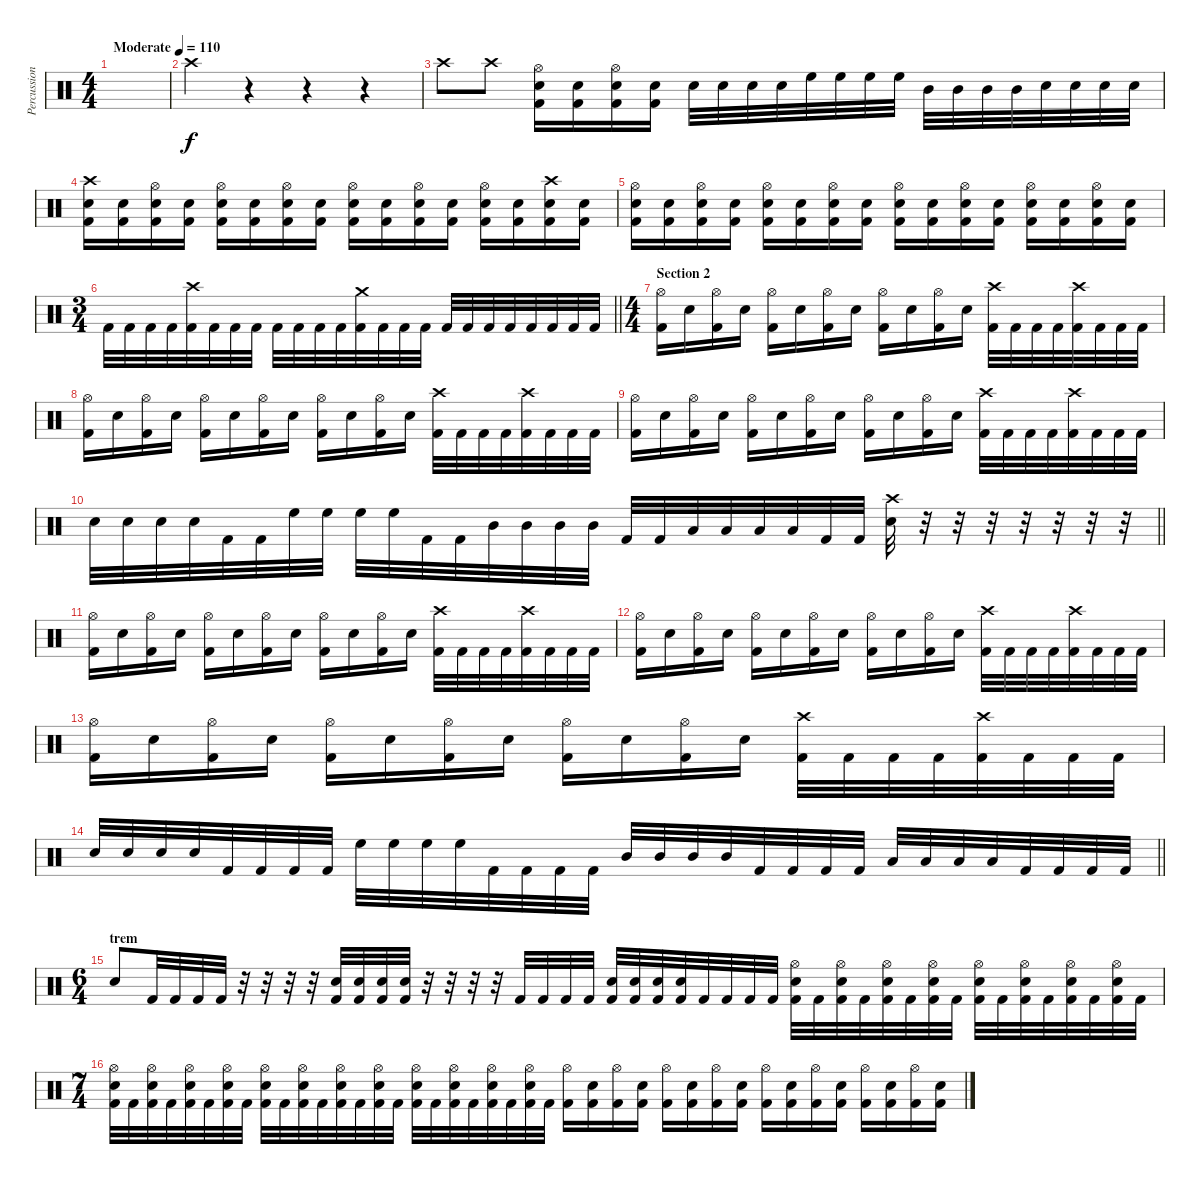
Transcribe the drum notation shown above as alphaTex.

\track ("Percussion" "Percussion") {instrument percussion}
\staff {score}
\articulation defaults
\ts (4 4)
\tempo (110 "Moderate")
\clef neutral
\ks c
|
"Crash high (hit)".4 r.4 r.4 r.4 |
"Crash high (hit)".8 "Crash high (hit)".8 ("Hi-Hat (open)" "Electric Snare (hit)" "Kick (hit) 2").16 ("Electric Snare (hit)" "Kick (hit) 2").16 ("Hi-Hat (open)" "Electric Snare (hit)" "Kick (hit) 2").16 ("Electric Snare (hit)" "Kick (hit) 2").16 "Electric Snare (hit)".32 "Electric Snare (hit)".32 "Electric Snare (hit)".32 "Electric Snare (hit)".32 "High Floor Tom (hit)".32 "High Floor Tom (hit)".32 "High Floor Tom (hit)".32 "High Floor Tom (hit)".32 "Mid Tom (hit)".32 "Mid Tom (hit)".32 "Mid Tom (hit)".32 "Mid Tom (hit)".32 "Electric Snare (hit)".32 "Electric Snare (hit)".32 "Electric Snare (hit)".32 "Electric Snare (hit)".32 |
("Crash high (hit)" "Electric Snare (hit)" "Kick (hit) 2").16 ("Electric Snare (hit)" "Kick (hit) 2").16 ("Hi-Hat (open)" "Electric Snare (hit)" "Kick (hit) 2").16 ("Electric Snare (hit)" "Kick (hit) 2").16 ("Hi-Hat (open)" "Electric Snare (hit)" "Kick (hit) 2").16 ("Electric Snare (hit)" "Kick (hit) 2").16 ("Hi-Hat (open)" "Electric Snare (hit)" "Kick (hit) 2").16 ("Electric Snare (hit)" "Kick (hit) 2").16 ("Hi-Hat (open)" "Electric Snare (hit)" "Kick (hit) 2").16 ("Electric Snare (hit)" "Kick (hit) 2").16 ("Hi-Hat (open)" "Electric Snare (hit)" "Kick (hit) 2").16 ("Electric Snare (hit)" "Kick (hit) 2").16 ("Hi-Hat (open)" "Electric Snare (hit)" "Kick (hit) 2").16 ("Electric Snare (hit)" "Kick (hit) 2").16 ("Crash high (hit)" "Electric Snare (hit)" "Kick (hit) 2").16 ("Electric Snare (hit)" "Kick (hit) 2").16 |
("Hi-Hat (open)" "Electric Snare (hit)" "Kick (hit) 2").16 ("Electric Snare (hit)" "Kick (hit) 2").16 ("Hi-Hat (open)" "Electric Snare (hit)" "Kick (hit) 2").16 ("Electric Snare (hit)" "Kick (hit) 2").16 ("Hi-Hat (open)" "Electric Snare (hit)" "Kick (hit) 2").16 ("Electric Snare (hit)" "Kick (hit) 2").16 ("Hi-Hat (open)" "Electric Snare (hit)" "Kick (hit) 2").16 ("Electric Snare (hit)" "Kick (hit) 2").16 ("Hi-Hat (open)" "Electric Snare (hit)" "Kick (hit) 2").16 ("Electric Snare (hit)" "Kick (hit) 2").16 ("Hi-Hat (open)" "Electric Snare (hit)" "Kick (hit) 2").16 ("Electric Snare (hit)" "Kick (hit) 2").16 ("Hi-Hat (open)" "Electric Snare (hit)" "Kick (hit) 2").16 ("Electric Snare (hit)" "Kick (hit) 2").16 ("Hi-Hat (open)" "Electric Snare (hit)" "Kick (hit) 2").16 ("Electric Snare (hit)" "Kick (hit) 2").16 |
\ts (3 4)
\barLineRight lightlight "Kick (hit) 2".32 "Kick (hit) 2".32 "Kick (hit) 2".32 "Kick (hit) 2".32
("Crash high (hit)" "Kick (hit) 2").32 "Kick (hit) 2".32 "Kick (hit) 2".32 "Kick (hit) 2".32 "Kick (hit) 2".32 "Kick (hit) 2".32 "Kick (hit) 2".32 "Kick (hit) 2".32 ("Crash medium (hit)" "Kick (hit) 2").32 "Kick (hit) 2".32 "Kick (hit) 2".32 "Kick (hit) 2".32 "Kick (hit) 2".32 "Kick (hit) 2".32 "Kick (hit) 2".32 "Kick (hit) 2".32 "Kick (hit) 2".32 "Kick (hit) 2".32 "Kick (hit) 2".32 "Kick (hit) 2".32 |
\ts (4 4)
\section ("" "Section 2")
("Hi-Hat (open)" "Kick (hit) 2").16 "Electric Snare (hit)".16 ("Hi-Hat (open)" "Kick (hit) 2").16 "Electric Snare (hit)".16 ("Hi-Hat (open)" "Kick (hit) 2").16 "Electric Snare (hit)".16 ("Hi-Hat (open)" "Kick (hit) 2").16 "Electric Snare (hit)".16 ("Hi-Hat (open)" "Kick (hit) 2").16 "Electric Snare (hit)".16 ("Hi-Hat (open)" "Kick (hit) 2").16 "Electric Snare (hit)".16 ("Crash high (hit)" "Kick (hit) 2").32 "Kick (hit) 2".32 "Kick (hit) 2".32 "Kick (hit) 2".32 ("Crash high (hit)" "Kick (hit) 2").32 "Kick (hit) 2".32 "Kick (hit) 2".32 "Kick (hit) 2".32 |
("Hi-Hat (open)" "Kick (hit) 2").16 "Electric Snare (hit)".16 ("Hi-Hat (open)" "Kick (hit) 2").16 "Electric Snare (hit)".16 ("Hi-Hat (open)" "Kick (hit) 2").16 "Electric Snare (hit)".16 ("Hi-Hat (open)" "Kick (hit) 2").16 "Electric Snare (hit)".16 ("Hi-Hat (open)" "Kick (hit) 2").16 "Electric Snare (hit)".16 ("Hi-Hat (open)" "Kick (hit) 2").16 "Electric Snare (hit)".16 ("Crash high (hit)" "Kick (hit) 2").32 "Kick (hit) 2".32 "Kick (hit) 2".32 "Kick (hit) 2".32 ("Crash high (hit)" "Kick (hit) 2").32 "Kick (hit) 2".32 "Kick (hit) 2".32 "Kick (hit) 2".32 |
("Hi-Hat (open)" "Kick (hit) 2").16 "Electric Snare (hit)".16 ("Hi-Hat (open)" "Kick (hit) 2").16 "Electric Snare (hit)".16 ("Hi-Hat (open)" "Kick (hit) 2").16 "Electric Snare (hit)".16 ("Hi-Hat (open)" "Kick (hit) 2").16 "Electric Snare (hit)".16 ("Hi-Hat (open)" "Kick (hit) 2").16 "Electric Snare (hit)".16 ("Hi-Hat (open)" "Kick (hit) 2").16 "Electric Snare (hit)".16 ("Crash high (hit)" "Kick (hit) 2").32 "Kick (hit) 2".32 "Kick (hit) 2".32 "Kick (hit) 2".32 ("Crash high (hit)" "Kick (hit) 2").32 "Kick (hit) 2".32 "Kick (hit) 2".32 "Kick (hit) 2".32 |
\barLineRight lightlight "Electric Snare (hit)".32 "Electric Snare (hit)".32 "Electric Snare (hit)".32 "Electric Snare (hit)".32 "Kick (hit) 2".32 "Kick (hit) 2".32 "High Floor Tom (hit)".32 "High Floor Tom (hit)".32 "High Floor Tom (hit)".32 "High Floor Tom (hit)".32 "Kick (hit) 2".32 "Kick (hit) 2".32 "Mid Tom (hit)".32 "Mid Tom (hit)".32 "Mid Tom (hit)".32 "Mid Tom (hit)".32 "Kick (hit) 2".32 "Kick (hit) 2".32 "Low Tom (hit)".32 "Low Tom (hit)".32 "Low Tom (hit)".32 "Low Tom (hit)".32 "Kick (hit) 2".32 "Kick (hit) 2".32
("Electric Snare (hit)" "Crash high (hit)").32 r.32 r.32 r.32 r.32 r.32 r.32 r.32 |
("Hi-Hat (open)" "Kick (hit) 2").16 "Electric Snare (hit)".16 ("Hi-Hat (open)" "Kick (hit) 2").16 "Electric Snare (hit)".16 ("Hi-Hat (open)" "Kick (hit) 2").16 "Electric Snare (hit)".16 ("Hi-Hat (open)" "Kick (hit) 2").16 "Electric Snare (hit)".16 ("Hi-Hat (open)" "Kick (hit) 2").16 "Electric Snare (hit)".16 ("Hi-Hat (open)" "Kick (hit) 2").16 "Electric Snare (hit)".16 ("Crash high (hit)" "Kick (hit) 2").32 "Kick (hit) 2".32 "Kick (hit) 2".32 "Kick (hit) 2".32 ("Crash high (hit)" "Kick (hit) 2").32 "Kick (hit) 2".32 "Kick (hit) 2".32 "Kick (hit) 2".32 |
("Hi-Hat (open)" "Kick (hit) 2").16 "Electric Snare (hit)".16 ("Hi-Hat (open)" "Kick (hit) 2").16 "Electric Snare (hit)".16 ("Hi-Hat (open)" "Kick (hit) 2").16 "Electric Snare (hit)".16 ("Hi-Hat (open)" "Kick (hit) 2").16 "Electric Snare (hit)".16 ("Hi-Hat (open)" "Kick (hit) 2").16 "Electric Snare (hit)".16 ("Hi-Hat (open)" "Kick (hit) 2").16 "Electric Snare (hit)".16 ("Crash high (hit)" "Kick (hit) 2").32 "Kick (hit) 2".32 "Kick (hit) 2".32 "Kick (hit) 2".32 ("Crash high (hit)" "Kick (hit) 2").32 "Kick (hit) 2".32 "Kick (hit) 2".32 "Kick (hit) 2".32 |
("Hi-Hat (open)" "Kick (hit) 2").16 "Electric Snare (hit)".16 ("Hi-Hat (open)" "Kick (hit) 2").16 "Electric Snare (hit)".16 ("Hi-Hat (open)" "Kick (hit) 2").16 "Electric Snare (hit)".16 ("Hi-Hat (open)" "Kick (hit) 2").16 "Electric Snare (hit)".16 ("Hi-Hat (open)" "Kick (hit) 2").16 "Electric Snare (hit)".16 ("Hi-Hat (open)" "Kick (hit) 2").16 "Electric Snare (hit)".16 ("Crash high (hit)" "Kick (hit) 2").32 "Kick (hit) 2".32 "Kick (hit) 2".32 "Kick (hit) 2".32 ("Crash high (hit)" "Kick (hit) 2").32 "Kick (hit) 2".32 "Kick (hit) 2".32 "Kick (hit) 2".32 |
\barLineRight lightlight "Electric Snare (hit)".32 "Electric Snare (hit)".32 "Electric Snare (hit)".32 "Electric Snare (hit)".32 "Kick (hit) 2".32 "Kick (hit) 2".32 "Kick (hit) 2".32 "Kick (hit) 2".32 "High Floor Tom (hit)".32 "High Floor Tom (hit)".32 "High Floor Tom (hit)".32 "High Floor Tom (hit)".32 "Kick (hit) 2".32 "Kick (hit) 2".32 "Kick (hit) 2".32 "Kick (hit) 2".32 "Mid Tom (hit)".32 "Mid Tom (hit)".32 "Mid Tom (hit)".32 "Mid Tom (hit)".32 "Kick (hit) 2".32 "Kick (hit) 2".32 "Kick (hit) 2".32 "Kick (hit) 2".32 "Low Tom (hit)".32 "Low Tom (hit)".32 "Low Tom (hit)".32 "Low Tom (hit)".32 "Kick (hit) 2".32 "Kick (hit) 2".32 "Kick (hit) 2".32 "Kick (hit) 2".32
|
\ts (6 4)
\section ("" "trem")
"Electric Snare (hit)".8 "Kick (hit) 2".32 "Kick (hit) 2".32 "Kick (hit) 2".32 "Kick (hit) 2".32 r.32 r.32 r.32 r.32 ("Electric Snare (hit)" "Kick (hit) 2").32 ("Electric Snare (hit)" "Kick (hit) 2").32 ("Electric Snare (hit)" "Kick (hit) 2").32 ("Electric Snare (hit)" "Kick (hit) 2").32 r.32 r.32 r.32 r.32 "Kick (hit) 2".32 "Kick (hit) 2".32 "Kick (hit) 2".32 "Kick (hit) 2".32 ("Electric Snare (hit)" "Kick (hit) 2").32 ("Electric Snare (hit)" "Kick (hit) 2").32 ("Electric Snare (hit)" "Kick (hit) 2").32 ("Electric Snare (hit)" "Kick (hit) 2").32 "Kick (hit) 2".32 "Kick (hit) 2".32 "Kick (hit) 2".32 "Kick (hit) 2".32 ("Hi-Hat (open)" "Electric Snare (hit)" "Kick (hit) 2").32 "Kick (hit) 2".32 ("Hi-Hat (open)" "Electric Snare (hit)" "Kick (hit) 2").32 "Kick (hit) 2".32 ("Hi-Hat (open)" "Electric Snare (hit)" "Kick (hit) 2").32 "Kick (hit) 2".32 ("Hi-Hat (open)" "Electric Snare (hit)" "Kick (hit) 2").32 "Kick (hit) 2".32 ("Hi-Hat (open)" "Electric Snare (hit)" "Kick (hit) 2").32 "Kick (hit) 2".32 ("Hi-Hat (open)" "Electric Snare (hit)" "Kick (hit) 2").32 "Kick (hit) 2".32 ("Hi-Hat (open)" "Electric Snare (hit)" "Kick (hit) 2").32 "Kick (hit) 2".32 ("Hi-Hat (open)" "Electric Snare (hit)" "Kick (hit) 2").32 "Kick (hit) 2".32 |
\ts (7 4)
("Hi-Hat (open)" "Electric Snare (hit)" "Kick (hit) 2").32 "Kick (hit) 2".32 ("Hi-Hat (open)" "Electric Snare (hit)" "Kick (hit) 2").32 "Kick (hit) 2".32 ("Hi-Hat (open)" "Electric Snare (hit)" "Kick (hit) 2").32 "Kick (hit) 2".32 ("Hi-Hat (open)" "Electric Snare (hit)" "Kick (hit) 2").32 "Kick (hit) 2".32 ("Hi-Hat (open)" "Electric Snare (hit)" "Kick (hit) 2").32 "Kick (hit) 2".32 ("Hi-Hat (open)" "Electric Snare (hit)" "Kick (hit) 2").32 "Kick (hit) 2".32 ("Hi-Hat (open)" "Electric Snare (hit)" "Kick (hit) 2").32 "Kick (hit) 2".32 ("Hi-Hat (open)" "Electric Snare (hit)" "Kick (hit) 2").32 "Kick (hit) 2".32 ("Hi-Hat (open)" "Electric Snare (hit)" "Kick (hit) 2").32 "Kick (hit) 2".32 ("Hi-Hat (open)" "Electric Snare (hit)" "Kick (hit) 2").32 "Kick (hit) 2".32 ("Hi-Hat (open)" "Electric Snare (hit)" "Kick (hit) 2").32 "Kick (hit) 2".32 ("Hi-Hat (open)" "Electric Snare (hit)" "Kick (hit) 2").32 "Kick (hit) 2".32 ("Hi-Hat (open)" "Kick (hit) 2").16 ("Electric Snare (hit)" "Kick (hit) 2").16 ("Hi-Hat (open)" "Kick (hit) 2").16 ("Electric Snare (hit)" "Kick (hit) 2").16 ("Hi-Hat (open)" "Kick (hit) 2").16 ("Electric Snare (hit)" "Kick (hit) 2").16 ("Hi-Hat (open)" "Kick (hit) 2").16 ("Electric Snare (hit)" "Kick (hit) 2").16 ("Hi-Hat (open)" "Kick (hit) 2").16 ("Electric Snare (hit)" "Kick (hit) 2").16 ("Hi-Hat (open)" "Kick (hit) 2").16 ("Electric Snare (hit)" "Kick (hit) 2").16 ("Hi-Hat (open)" "Kick (hit) 2").16 ("Electric Snare (hit)" "Kick (hit) 2").16 ("Hi-Hat (open)" "Kick (hit) 2").16 ("Electric Snare (hit)" "Kick (hit) 2").16
